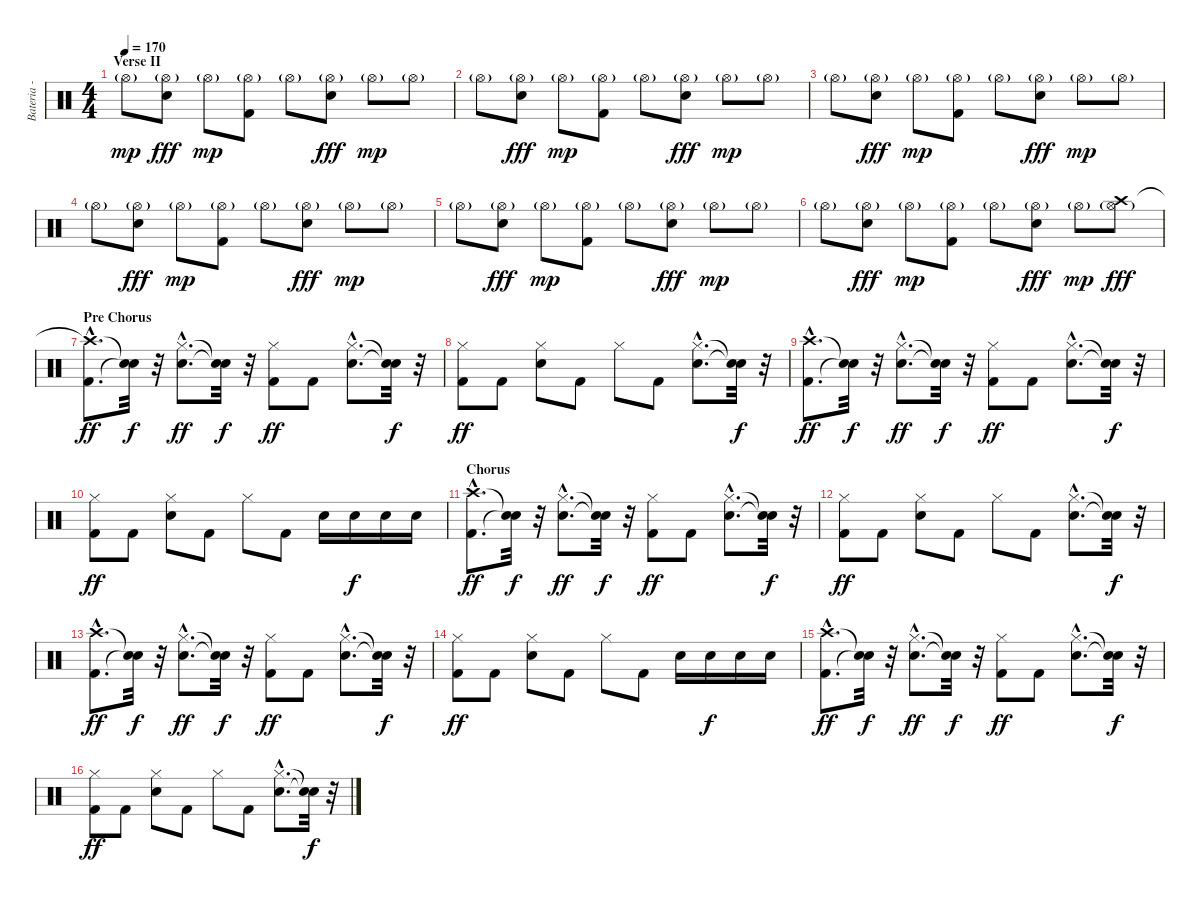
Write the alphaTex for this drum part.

\track ("Bateria - Larzon" "Bateria - ") {instrument percussion}
\staff {score}
\articulation defaults
\ts (4 4)
\section ("" "Verse II")
\tempo 170
\clef neutral
\ks c "Hi-Hat (open)"{g}.8{dy mp}
("Hi-Hat (open)"{g} "Snare (hit) 2").8{dy fff} "Hi-Hat (open)"{g}.8{dy mp} ("Kick (hit) 2" "Hi-Hat (open)"{g}).8 "Hi-Hat (open)"{g}.8 ("Hi-Hat (open)"{g} "Snare (hit) 2").8{dy fff} "Hi-Hat (open)"{g}.8{dy mp} "Hi-Hat (open)"{g}.8 |
"Hi-Hat (open)"{g}.8 ("Hi-Hat (open)"{g} "Snare (hit) 2").8{dy fff} "Hi-Hat (open)"{g}.8{dy mp} ("Kick (hit) 2" "Hi-Hat (open)"{g}).8 "Hi-Hat (open)"{g}.8 ("Hi-Hat (open)"{g} "Snare (hit) 2").8{dy fff} "Hi-Hat (open)"{g}.8{dy mp} "Hi-Hat (open)"{g}.8 |
"Hi-Hat (open)"{g}.8 ("Hi-Hat (open)"{g} "Snare (hit) 2").8{dy fff} "Hi-Hat (open)"{g}.8{dy mp} ("Kick (hit) 2" "Hi-Hat (open)"{g}).8 "Hi-Hat (open)"{g}.8 ("Hi-Hat (open)"{g} "Snare (hit) 2").8{dy fff} "Hi-Hat (open)"{g}.8{dy mp} "Hi-Hat (open)"{g}.8 |
"Hi-Hat (open)"{g}.8 ("Hi-Hat (open)"{g} "Snare (hit) 2").8{dy fff} "Hi-Hat (open)"{g}.8{dy mp} ("Kick (hit) 2" "Hi-Hat (open)"{g}).8 "Hi-Hat (open)"{g}.8 ("Hi-Hat (open)"{g} "Snare (hit) 2").8{dy fff} "Hi-Hat (open)"{g}.8{dy mp} "Hi-Hat (open)"{g}.8 |
"Hi-Hat (open)"{g}.8 ("Hi-Hat (open)"{g} "Snare (hit) 2").8{dy fff} "Hi-Hat (open)"{g}.8{dy mp} ("Kick (hit) 2" "Hi-Hat (open)"{g}).8 "Hi-Hat (open)"{g}.8 ("Hi-Hat (open)"{g} "Snare (hit) 2").8{dy fff} "Hi-Hat (open)"{g}.8{dy mp} "Hi-Hat (open)"{g}.8 |
"Hi-Hat (open)"{g}.8 ("Hi-Hat (open)"{g} "Snare (hit) 2").8{dy fff} "Hi-Hat (open)"{g}.8{dy mp} ("Kick (hit) 2" "Hi-Hat (open)"{g}).8 "Hi-Hat (open)"{g}.8 ("Hi-Hat (open)"{g} "Snare (hit) 2").8{dy fff} "Hi-Hat (open)"{g}.8{dy mp} ("Hi-Hat (open)"{g} "Crash high (hit)").8{dy fff} |
\section ("" "Pre Chorus")
("Kick (hit) 2"{hac} "Crash high (hit)"{hac t}).8{d dy ff} ("Snare (hit)"{t} "Snare (hit)"{t}).32{dy f} r.32 ("Electric Snare (hit)"{hac} "Hi-Hat (closed)"{hac}).8{d dy ff} ("Snare (hit)"{t} "Snare (hit)"{t}).32{dy f} r.32 ("Kick (hit) 2" "Hi-Hat (closed)").8{dy ff} "Kick (hit) 2".8 ("Electric Snare (hit)"{hac} "Hi-Hat (closed)"{hac}).8{d} ("Snare (hit)"{t} "Snare (hit)"{t}).32{dy f} r.32 |
("Kick (hit) 2" "Hi-Hat (closed)").8{dy ff} "Kick (hit) 2".8 ("Electric Snare (hit)" "Hi-Hat (closed)").8 "Kick (hit) 2".8 "Hi-Hat (closed)".8 "Kick (hit) 2".8 ("Electric Snare (hit)"{hac} "Hi-Hat (closed)"{hac}).8{d} ("Snare (hit)"{t} "Snare (hit)"{t}).32{dy f} r.32 |
("Kick (hit) 2"{hac} "Crash high (hit)"{hac}).8{d dy ff} ("Snare (hit)"{t} "Snare (hit)"{t}).32{dy f} r.32 ("Electric Snare (hit)"{hac} "Hi-Hat (closed)"{hac}).8{d dy ff} ("Snare (hit)"{t} "Snare (hit)"{t}).32{dy f} r.32 ("Kick (hit) 2" "Hi-Hat (closed)").8{dy ff} "Kick (hit) 2".8 ("Electric Snare (hit)"{hac} "Hi-Hat (closed)"{hac}).8{d} ("Snare (hit)"{t} "Snare (hit)"{t}).32{dy f} r.32 |
("Kick (hit) 2" "Hi-Hat (closed)").8{dy ff} "Kick (hit) 2".8 ("Electric Snare (hit)" "Hi-Hat (closed)").8 "Kick (hit) 2".8 "Hi-Hat (closed)".8 "Kick (hit) 2".8 "Electric Snare (hit)".16 "Electric Snare (hit)".16{dy f} "Electric Snare (hit)".16 "Electric Snare (hit)".16 |
\section ("" "Chorus")
("Kick (hit) 2"{hac} "Crash high (hit)"{hac}).8{d dy ff} ("Snare (hit)"{t} "Snare (hit)"{t}).32{dy f} r.32 ("Electric Snare (hit)"{hac} "Hi-Hat (closed)"{hac}).8{d dy ff} ("Snare (hit)"{t} "Snare (hit)"{t}).32{dy f} r.32 ("Kick (hit) 2" "Hi-Hat (closed)").8{dy ff} "Kick (hit) 2".8 ("Electric Snare (hit)"{hac} "Hi-Hat (closed)"{hac}).8{d} ("Snare (hit)"{t} "Snare (hit)"{t}).32{dy f} r.32 |
("Kick (hit) 2" "Hi-Hat (closed)").8{dy ff} "Kick (hit) 2".8 ("Electric Snare (hit)" "Hi-Hat (closed)").8 "Kick (hit) 2".8 "Hi-Hat (closed)".8 "Kick (hit) 2".8 ("Electric Snare (hit)"{hac} "Hi-Hat (closed)"{hac}).8{d} ("Snare (hit)"{t} "Snare (hit)"{t}).32{dy f} r.32 |
("Kick (hit) 2"{hac} "Crash high (hit)"{hac}).8{d dy ff} ("Snare (hit)"{t} "Snare (hit)"{t}).32{dy f} r.32 ("Electric Snare (hit)"{hac} "Hi-Hat (closed)"{hac}).8{d dy ff} ("Snare (hit)"{t} "Snare (hit)"{t}).32{dy f} r.32 ("Kick (hit) 2" "Hi-Hat (closed)").8{dy ff} "Kick (hit) 2".8 ("Electric Snare (hit)"{hac} "Hi-Hat (closed)"{hac}).8{d} ("Snare (hit)"{t} "Snare (hit)"{t}).32{dy f} r.32 |
("Kick (hit) 2" "Hi-Hat (closed)").8{dy ff} "Kick (hit) 2".8 ("Electric Snare (hit)" "Hi-Hat (closed)").8 "Kick (hit) 2".8 "Hi-Hat (closed)".8 "Kick (hit) 2".8 "Electric Snare (hit)".16 "Electric Snare (hit)".16{dy f} "Electric Snare (hit)".16 "Electric Snare (hit)".16 |
("Kick (hit) 2"{hac} "Crash high (hit)"{hac}).8{d dy ff} ("Snare (hit)"{t} "Snare (hit)"{t}).32{dy f} r.32 ("Electric Snare (hit)"{hac} "Hi-Hat (closed)"{hac}).8{d dy ff} ("Snare (hit)"{t} "Snare (hit)"{t}).32{dy f} r.32 ("Kick (hit) 2" "Hi-Hat (closed)").8{dy ff} "Kick (hit) 2".8 ("Electric Snare (hit)"{hac} "Hi-Hat (closed)"{hac}).8{d} ("Snare (hit)"{t} "Snare (hit)"{t}).32{dy f} r.32 |
("Kick (hit) 2" "Hi-Hat (closed)").8{dy ff} "Kick (hit) 2".8 ("Electric Snare (hit)" "Hi-Hat (closed)").8 "Kick (hit) 2".8 "Hi-Hat (closed)".8 "Kick (hit) 2".8 ("Electric Snare (hit)"{hac} "Hi-Hat (closed)"{hac}).8{d} ("Snare (hit)"{t} "Snare (hit)"{t}).32{dy f} r.32
